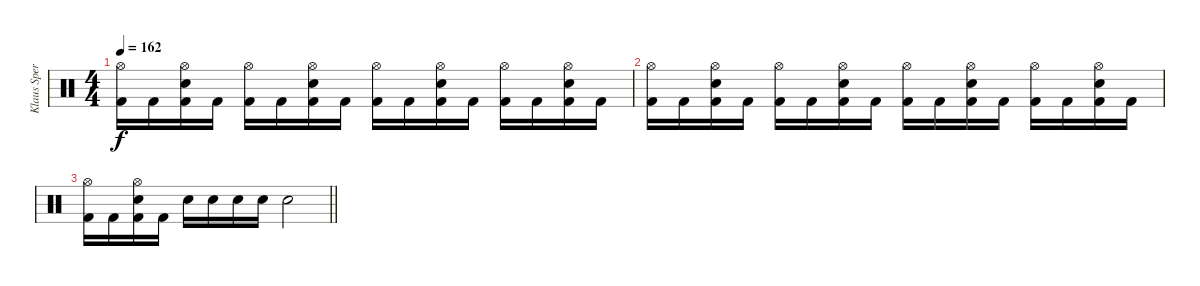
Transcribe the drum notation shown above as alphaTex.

\track ("Klaus Sperling" "Klaus Sper") {instrument percussion}
\staff {score}
\articulation defaults
\ts (4 4)
\tempo 162
\clef neutral
\ks c
("Hi-Hat (open)" "Kick (hit) 2").16{dy f} "Kick (hit) 2".16 ("Hi-Hat (open)" "Electric Snare (hit)" "Kick (hit) 2").16 "Kick (hit) 2".16 ("Hi-Hat (open)" "Kick (hit) 2").16 "Kick (hit) 2".16 ("Hi-Hat (open)" "Electric Snare (hit)" "Kick (hit) 2").16 "Kick (hit) 2".16 ("Hi-Hat (open)" "Kick (hit) 2").16 "Kick (hit) 2".16 ("Hi-Hat (open)" "Electric Snare (hit)" "Kick (hit) 2").16 "Kick (hit) 2".16 ("Hi-Hat (open)" "Kick (hit) 2").16 "Kick (hit) 2".16 ("Hi-Hat (open)" "Electric Snare (hit)" "Kick (hit) 2").16 "Kick (hit) 2".16 |
("Hi-Hat (open)" "Kick (hit) 2").16 "Kick (hit) 2".16 ("Hi-Hat (open)" "Electric Snare (hit)" "Kick (hit) 2").16 "Kick (hit) 2".16 ("Hi-Hat (open)" "Kick (hit) 2").16 "Kick (hit) 2".16 ("Hi-Hat (open)" "Electric Snare (hit)" "Kick (hit) 2").16 "Kick (hit) 2".16 ("Hi-Hat (open)" "Kick (hit) 2").16 "Kick (hit) 2".16 ("Hi-Hat (open)" "Electric Snare (hit)" "Kick (hit) 2").16 "Kick (hit) 2".16 ("Hi-Hat (open)" "Kick (hit) 2").16 "Kick (hit) 2".16 ("Hi-Hat (open)" "Electric Snare (hit)" "Kick (hit) 2").16 "Kick (hit) 2".16 |
\barLineRight lightlight
("Hi-Hat (open)" "Kick (hit) 2").16 "Kick (hit) 2".16 ("Hi-Hat (open)" "Electric Snare (hit)" "Kick (hit) 2").16 "Kick (hit) 2".16 "Electric Snare (hit)".16 "Electric Snare (hit)".16 "Electric Snare (hit)".16 "Electric Snare (hit)".16 "Electric Snare (hit)".2
